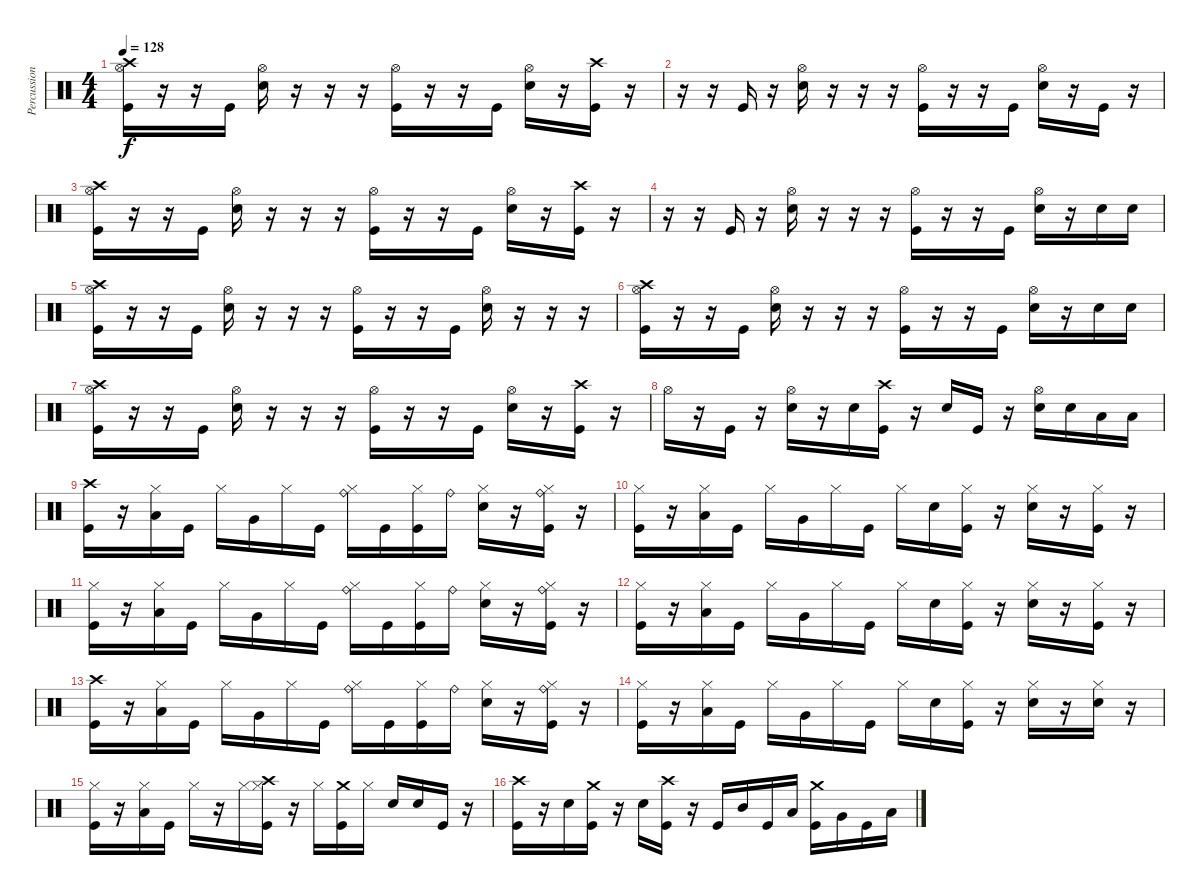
\track ("Percussion" "Percussion") {instrument percussion bank 177}
\staff {score}
\articulation defaults
\ts (4 4)
\tempo 128
\clef neutral
\ks c
("Crash high (hit)" "Hi-Hat (open)" "Kick (hit)").16{dy f} r.16 r.16 "Kick (hit)".16 ("Hi-Hat (open)" "Electric Snare (hit)").16 r.16 r.16 r.16 ("Hi-Hat (open)" "Kick (hit)").16 r.16 r.16 "Kick (hit)".16 ("Hi-Hat (open)" "Electric Snare (hit)").16 r.16 ("Crash high (hit)" "Kick (hit)").16 r.16 |
r.16 r.16 "Kick (hit)".16 r.16 ("Hi-Hat (open)" "Electric Snare (hit)").16 r.16 r.16 r.16 ("Hi-Hat (open)" "Kick (hit)").16 r.16 r.16 "Kick (hit)".16 ("Hi-Hat (open)" "Electric Snare (hit)").16 r.16 "Kick (hit)".16 r.16 |
("Crash high (hit)" "Hi-Hat (open)" "Kick (hit)").16 r.16 r.16 "Kick (hit)".16 ("Hi-Hat (open)" "Electric Snare (hit)").16 r.16 r.16 r.16 ("Hi-Hat (open)" "Kick (hit)").16 r.16 r.16 "Kick (hit)".16 ("Hi-Hat (open)" "Electric Snare (hit)").16 r.16 ("Crash high (hit)" "Kick (hit)").16 r.16 |
r.16 r.16 "Kick (hit)".16 r.16 ("Hi-Hat (open)" "Electric Snare (hit)").16 r.16 r.16 r.16 ("Hi-Hat (open)" "Kick (hit)").16 r.16 r.16 "Kick (hit)".16 ("Hi-Hat (open)" "Electric Snare (hit)").16 r.16 "Electric Snare (hit)".16 "Electric Snare (hit)".16 |
("Crash high (hit)" "Hi-Hat (open)" "Kick (hit)").16 r.16 r.16 "Kick (hit)".16 ("Hi-Hat (open)" "Electric Snare (hit)").16 r.16 r.16 r.16 ("Hi-Hat (open)" "Kick (hit)").16 r.16 r.16 "Kick (hit)".16 ("Hi-Hat (open)" "Electric Snare (hit)").16 r.16 r.16 r.16 |
("Crash high (hit)" "Hi-Hat (open)" "Kick (hit)").16 r.16 r.16 "Kick (hit)".16 ("Hi-Hat (open)" "Electric Snare (hit)").16 r.16 r.16 r.16 ("Hi-Hat (open)" "Kick (hit)").16 r.16 r.16 "Kick (hit)".16 ("Hi-Hat (open)" "Electric Snare (hit)").16 r.16 "Electric Snare (hit)".16 "Electric Snare (hit)".16 |
("Crash high (hit)" "Hi-Hat (open)" "Kick (hit)").16 r.16 r.16 "Kick (hit)".16 ("Hi-Hat (open)" "Electric Snare (hit)").16 r.16 r.16 r.16 ("Hi-Hat (open)" "Kick (hit)").16 r.16 r.16 "Kick (hit)".16 ("Hi-Hat (open)" "Electric Snare (hit)").16 r.16 ("Crash high (hit)" "Kick (hit)").16 r.16 |
"Hi-Hat (open)".16 r.16 "Kick (hit)".16 r.16 ("Hi-Hat (open)" "Electric Snare (hit)").16 r.16 "Electric Snare (hit)".16 ("Crash high (hit)" "Kick (hit)").16 r.16 "Electric Snare (hit)".16 "Kick (hit)".16 r.16 ("Hi-Hat (open)" "Electric Snare (hit)").16 "Electric Snare (hit)".16 "Low Floor Tom (hit)".16 "Low Floor Tom (hit)".16 |
("Crash high (hit)" "Kick (hit)").16 r.16 ("Hi-Hat (closed)" "Low Tom (hit)").16 "Kick (hit)".16 "Hi-Hat (closed)".16 "Very Low Tom (hit)".16 "Hi-Hat (closed)".16 "Kick (hit)".16 ("Ride (bell)" "Hi-Hat (closed)").16 "Kick (hit)".16 ("Hi-Hat (closed)" "Kick (hit)").16 "Ride (bell)".16 ("Hi-Hat (closed)" "Electric Snare (hit)").16 r.16 ("Ride (bell)" "Hi-Hat (closed)" "Kick (hit)").16 r.16 |
("Hi-Hat (closed)" "Kick (hit)").16 r.16 ("Hi-Hat (closed)" "Low Tom (hit)").16 "Kick (hit)".16 "Hi-Hat (closed)".16 "Very Low Tom (hit)".16 "Hi-Hat (closed)".16 "Kick (hit)".16 "Hi-Hat (closed)".16 "Electric Snare (hit)".16 ("Hi-Hat (closed)" "Kick (hit)").16 r.16 ("Hi-Hat (closed)" "Electric Snare (hit)").16 r.16 ("Hi-Hat (closed)" "Kick (hit)").16 r.16 |
("Hi-Hat (closed)" "Kick (hit)").16 r.16 ("Hi-Hat (closed)" "Low Tom (hit)").16 "Kick (hit)".16 "Hi-Hat (closed)".16 "Very Low Tom (hit)".16 "Hi-Hat (closed)".16 "Kick (hit)".16 ("Ride (bell)" "Hi-Hat (closed)").16 "Kick (hit)".16 ("Hi-Hat (closed)" "Kick (hit)").16 "Ride (bell)".16 ("Hi-Hat (closed)" "Electric Snare (hit)").16 r.16 ("Ride (bell)" "Hi-Hat (closed)" "Kick (hit)").16 r.16 |
("Hi-Hat (closed)" "Kick (hit)").16 r.16 ("Hi-Hat (closed)" "Low Tom (hit)").16 "Kick (hit)".16 "Hi-Hat (closed)".16 "Very Low Tom (hit)".16 "Hi-Hat (closed)".16 "Kick (hit)".16 "Hi-Hat (closed)".16 "Electric Snare (hit)".16 ("Hi-Hat (closed)" "Kick (hit)").16 r.16 ("Hi-Hat (closed)" "Electric Snare (hit)").16 r.16 ("Hi-Hat (closed)" "Kick (hit)").16 r.16 |
("Crash high (hit)" "Kick (hit)").16 r.16 ("Hi-Hat (closed)" "Low Tom (hit)").16 "Kick (hit)".16 "Hi-Hat (closed)".16 "Very Low Tom (hit)".16 "Hi-Hat (closed)".16 "Kick (hit)".16 ("Ride (bell)" "Hi-Hat (closed)").16 "Kick (hit)".16 ("Hi-Hat (closed)" "Kick (hit)").16 "Ride (bell)".16 ("Hi-Hat (closed)" "Electric Snare (hit)").16 r.16 ("Ride (bell)" "Hi-Hat (closed)" "Kick (hit)").16 r.16 |
("Hi-Hat (closed)" "Kick (hit)").16 r.16 ("Hi-Hat (closed)" "Low Tom (hit)").16 "Kick (hit)".16 "Hi-Hat (closed)".16 "Very Low Tom (hit)".16 "Hi-Hat (closed)".16 "Kick (hit)".16 "Hi-Hat (closed)".16 "Electric Snare (hit)".16 ("Hi-Hat (closed)" "Kick (hit)").16 r.16 ("Hi-Hat (closed)" "Electric Snare (hit)").16 r.16 ("Hi-Hat (closed)" "Electric Snare (hit)").16 r.16 |
("Hi-Hat (closed)" "Kick (hit)").16 r.16 ("Hi-Hat (closed)" "Low Tom (hit)").16 "Kick (hit)".16 "Hi-Hat (closed)".16 r.16 "Hi-Hat (closed)".16 ("Crash high (hit)" "Hi-Hat (closed)" "Kick (hit)").16 r.16 "Hi-Hat (closed)".16 ("Crash medium (hit)" "Kick (hit)").16 "Hi-Hat (closed)".16 "Electric Snare (hit)".16 "Electric Snare (hit)".16 "Kick (hit)".16 r.16 |
("Crash high (hit)" "Kick (hit)").16 r.16 "Electric Snare (hit)".16 ("Crash medium (hit)" "Kick (hit)").16 r.16 "Electric Snare (hit)".16 ("Crash high (hit)" "Kick (hit)").16 r.16 "Kick (hit)".16 "Mid Tom (hit)".16 "Kick (hit)".16 "Low Tom (hit)".16 ("Crash medium (hit)" "Kick (hit)").16 "Very Low Tom (hit)".16 "Kick (hit)".16 "Low Floor Tom (hit)".16
